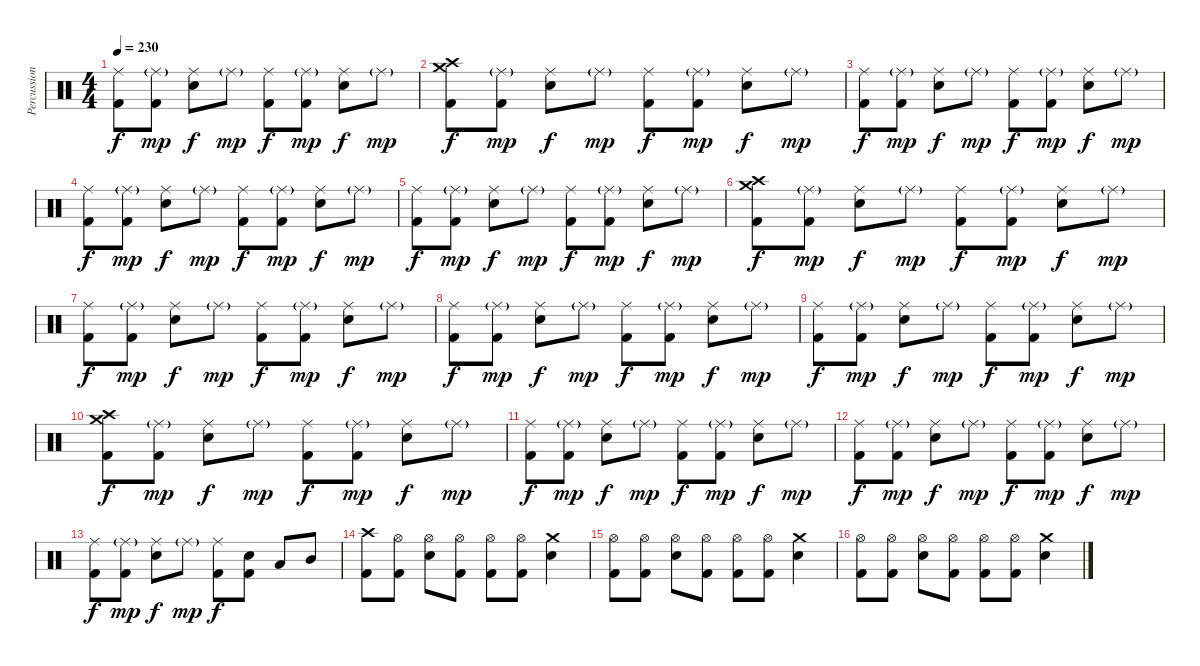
\track ("Percussion" "Percussion") {instrument percussion}
\staff {score}
\articulation defaults
\ts (4 4)
\tempo 230
\clef neutral
\ks c
("Ride (middle)" "Kick (hit) 2").8{dy f} ("Ride (middle)"{g} "Kick (hit) 2").8{dy mp} ("Ride (middle)" "Snare (hit) 2").8{dy f} "Ride (middle)"{g}.8{dy mp} ("Ride (middle)" "Kick (hit) 2").8{dy f} ("Ride (middle)"{g} "Kick (hit) 2").8{dy mp} ("Ride (middle)" "Snare (hit) 2").8{dy f} "Ride (middle)"{g}.8{dy mp} |
("Crash medium (hit)" "Crash high (hit)" "Kick (hit) 2").8{dy f} ("Ride (middle)"{g} "Kick (hit) 2").8{dy mp} ("Ride (middle)" "Snare (hit) 2").8{dy f} "Ride (middle)"{g}.8{dy mp} ("Ride (middle)" "Kick (hit) 2").8{dy f} ("Ride (middle)"{g} "Kick (hit) 2").8{dy mp} ("Ride (middle)" "Snare (hit) 2").8{dy f} "Ride (middle)"{g}.8{dy mp} |
("Ride (middle)" "Kick (hit) 2").8{dy f} ("Ride (middle)"{g} "Kick (hit) 2").8{dy mp} ("Ride (middle)" "Snare (hit) 2").8{dy f} "Ride (middle)"{g}.8{dy mp} ("Ride (middle)" "Kick (hit) 2").8{dy f} ("Ride (middle)"{g} "Kick (hit) 2").8{dy mp} ("Ride (middle)" "Snare (hit) 2").8{dy f} "Ride (middle)"{g}.8{dy mp} |
("Ride (middle)" "Kick (hit) 2").8{dy f} ("Ride (middle)"{g} "Kick (hit) 2").8{dy mp} ("Ride (middle)" "Snare (hit) 2").8{dy f} "Ride (middle)"{g}.8{dy mp} ("Ride (middle)" "Kick (hit) 2").8{dy f} ("Ride (middle)"{g} "Kick (hit) 2").8{dy mp} ("Ride (middle)" "Snare (hit) 2").8{dy f} "Ride (middle)"{g}.8{dy mp} |
("Ride (middle)" "Kick (hit) 2").8{dy f} ("Ride (middle)"{g} "Kick (hit) 2").8{dy mp} ("Ride (middle)" "Snare (hit) 2").8{dy f} "Ride (middle)"{g}.8{dy mp} ("Ride (middle)" "Kick (hit) 2").8{dy f} ("Ride (middle)"{g} "Kick (hit) 2").8{dy mp} ("Ride (middle)" "Snare (hit) 2").8{dy f} "Ride (middle)"{g}.8{dy mp} |
("Crash medium (hit)" "Crash high (hit)" "Kick (hit) 2").8{dy f} ("Ride (middle)"{g} "Kick (hit) 2").8{dy mp} ("Ride (middle)" "Snare (hit) 2").8{dy f} "Ride (middle)"{g}.8{dy mp} ("Ride (middle)" "Kick (hit) 2").8{dy f} ("Ride (middle)"{g} "Kick (hit) 2").8{dy mp} ("Ride (middle)" "Snare (hit) 2").8{dy f} "Ride (middle)"{g}.8{dy mp} |
("Ride (middle)" "Kick (hit) 2").8{dy f} ("Ride (middle)"{g} "Kick (hit) 2").8{dy mp} ("Ride (middle)" "Snare (hit) 2").8{dy f} "Ride (middle)"{g}.8{dy mp} ("Ride (middle)" "Kick (hit) 2").8{dy f} ("Ride (middle)"{g} "Kick (hit) 2").8{dy mp} ("Ride (middle)" "Snare (hit) 2").8{dy f} "Ride (middle)"{g}.8{dy mp} |
("Ride (middle)" "Kick (hit) 2").8{dy f} ("Ride (middle)"{g} "Kick (hit) 2").8{dy mp} ("Ride (middle)" "Snare (hit) 2").8{dy f} "Ride (middle)"{g}.8{dy mp} ("Ride (middle)" "Kick (hit) 2").8{dy f} ("Ride (middle)"{g} "Kick (hit) 2").8{dy mp} ("Ride (middle)" "Snare (hit) 2").8{dy f} "Ride (middle)"{g}.8{dy mp} |
("Ride (middle)" "Kick (hit) 2").8{dy f} ("Ride (middle)"{g} "Kick (hit) 2").8{dy mp} ("Ride (middle)" "Snare (hit) 2").8{dy f} "Ride (middle)"{g}.8{dy mp} ("Ride (middle)" "Kick (hit) 2").8{dy f} ("Ride (middle)"{g} "Kick (hit) 2").8{dy mp} ("Ride (middle)" "Snare (hit) 2").8{dy f} "Ride (middle)"{g}.8{dy mp} |
("Crash medium (hit)" "Crash high (hit)" "Kick (hit) 2").8{dy f} ("Ride (middle)"{g} "Kick (hit) 2").8{dy mp} ("Ride (middle)" "Snare (hit) 2").8{dy f} "Ride (middle)"{g}.8{dy mp} ("Ride (middle)" "Kick (hit) 2").8{dy f} ("Ride (middle)"{g} "Kick (hit) 2").8{dy mp} ("Ride (middle)" "Snare (hit) 2").8{dy f} "Ride (middle)"{g}.8{dy mp} |
("Ride (middle)" "Kick (hit) 2").8{dy f} ("Ride (middle)"{g} "Kick (hit) 2").8{dy mp} ("Ride (middle)" "Snare (hit) 2").8{dy f} "Ride (middle)"{g}.8{dy mp} ("Ride (middle)" "Kick (hit) 2").8{dy f} ("Ride (middle)"{g} "Kick (hit) 2").8{dy mp} ("Ride (middle)" "Snare (hit) 2").8{dy f} "Ride (middle)"{g}.8{dy mp} |
("Ride (middle)" "Kick (hit) 2").8{dy f} ("Ride (middle)"{g} "Kick (hit) 2").8{dy mp} ("Ride (middle)" "Snare (hit) 2").8{dy f} "Ride (middle)"{g}.8{dy mp} ("Ride (middle)" "Kick (hit) 2").8{dy f} ("Ride (middle)"{g} "Kick (hit) 2").8{dy mp} ("Ride (middle)" "Snare (hit) 2").8{dy f} "Ride (middle)"{g}.8{dy mp} |
("Ride (middle)" "Kick (hit) 2").8{dy f} ("Ride (middle)"{g} "Kick (hit) 2").8{dy mp} ("Ride (middle)" "Snare (hit) 2").8{dy f} "Ride (middle)"{g}.8{dy mp} ("Ride (middle)" "Kick (hit) 2").8{dy f} ("Snare (hit) 2" "Kick (hit) 2").8 "Low Tom (hit)".8 "Mid Tom (hit)".8 |
("Crash high (hit)" "Kick (hit) 2").8 ("Hi-Hat (open)" "Kick (hit) 2").8 ("Hi-Hat (open)" "Snare (hit) 2").8 ("Hi-Hat (open)" "Kick (hit) 2").8 ("Hi-Hat (open)" "Kick (hit) 2").8 ("Hi-Hat (open)" "Kick (hit) 2").8 ("Crash medium (hit)" "Snare (hit) 2").4 |
("Hi-Hat (open)" "Kick (hit) 2").8 ("Hi-Hat (open)" "Kick (hit) 2").8 ("Hi-Hat (open)" "Snare (hit) 2").8 ("Hi-Hat (open)" "Kick (hit) 2").8 ("Hi-Hat (open)" "Kick (hit) 2").8 ("Hi-Hat (open)" "Kick (hit) 2").8 ("Crash medium (hit)" "Snare (hit) 2").4 |
("Hi-Hat (open)" "Kick (hit) 2").8 ("Hi-Hat (open)" "Kick (hit) 2").8 ("Hi-Hat (open)" "Snare (hit) 2").8 ("Hi-Hat (open)" "Kick (hit) 2").8 ("Hi-Hat (open)" "Kick (hit) 2").8 ("Hi-Hat (open)" "Kick (hit) 2").8 ("Crash medium (hit)" "Snare (hit) 2").4
